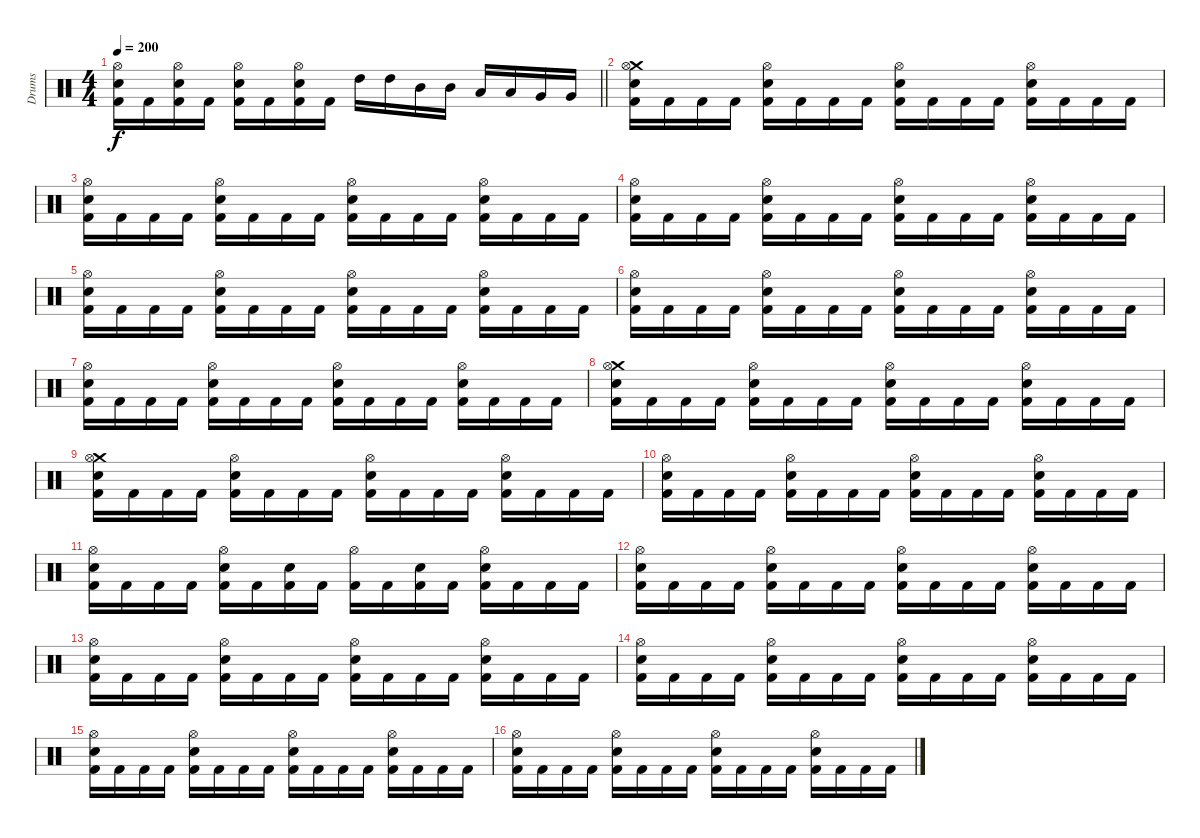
\track ("Drums" "Drums") {instrument percussion}
\staff {score}
\articulation defaults
\ts (4 4)
\tempo 200
\clef neutral
\barLineRight lightlight
\ks c
("Hi-Hat (open)" "Snare (hit) 2" "Kick (hit) 2").16{dy f} "Kick (hit) 2".16 ("Hi-Hat (open)" "Snare (hit) 2" "Kick (hit) 2").16 "Kick (hit) 2".16 ("Hi-Hat (open)" "Snare (hit) 2" "Kick (hit) 2").16 "Kick (hit) 2".16 ("Hi-Hat (open)" "Snare (hit) 2" "Kick (hit) 2").16 "Kick (hit) 2".16 "High Tom (hit)".16 "High Tom (hit)".16 "Mid Tom (hit)".16 "Mid Tom (hit)".16 "Low Tom (hit)".16 "Low Tom (hit)".16 "Very Low Tom (hit)".16 "Very Low Tom (hit)".16 |
("Crash medium (hit)" "Hi-Hat (open)" "Snare (hit) 2" "Kick (hit) 2").16 "Kick (hit) 2".16 "Kick (hit) 2".16 "Kick (hit) 2".16 ("Hi-Hat (open)" "Snare (hit) 2" "Kick (hit) 2").16 "Kick (hit) 2".16 "Kick (hit) 2".16 "Kick (hit) 2".16 ("Hi-Hat (open)" "Snare (hit) 2" "Kick (hit) 2").16 "Kick (hit) 2".16 "Kick (hit) 2".16 "Kick (hit) 2".16 ("Hi-Hat (open)" "Snare (hit) 2" "Kick (hit) 2").16 "Kick (hit) 2".16 "Kick (hit) 2".16 "Kick (hit) 2".16 |
("Hi-Hat (open)" "Snare (hit) 2" "Kick (hit) 2").16 "Kick (hit) 2".16 "Kick (hit) 2".16 "Kick (hit) 2".16 ("Hi-Hat (open)" "Snare (hit) 2" "Kick (hit) 2").16 "Kick (hit) 2".16 "Kick (hit) 2".16 "Kick (hit) 2".16 ("Hi-Hat (open)" "Snare (hit) 2" "Kick (hit) 2").16 "Kick (hit) 2".16 "Kick (hit) 2".16 "Kick (hit) 2".16 ("Hi-Hat (open)" "Snare (hit) 2" "Kick (hit) 2").16 "Kick (hit) 2".16 "Kick (hit) 2".16 "Kick (hit) 2".16 |
("Hi-Hat (open)" "Snare (hit) 2" "Kick (hit) 2").16 "Kick (hit) 2".16 "Kick (hit) 2".16 "Kick (hit) 2".16 ("Hi-Hat (open)" "Snare (hit) 2" "Kick (hit) 2").16 "Kick (hit) 2".16 "Kick (hit) 2".16 "Kick (hit) 2".16 ("Hi-Hat (open)" "Snare (hit) 2" "Kick (hit) 2").16 "Kick (hit) 2".16 "Kick (hit) 2".16 "Kick (hit) 2".16 ("Hi-Hat (open)" "Snare (hit) 2" "Kick (hit) 2").16 "Kick (hit) 2".16 "Kick (hit) 2".16 "Kick (hit) 2".16 |
("Hi-Hat (open)" "Snare (hit) 2" "Kick (hit) 2").16 "Kick (hit) 2".16 "Kick (hit) 2".16 "Kick (hit) 2".16 ("Hi-Hat (open)" "Snare (hit) 2" "Kick (hit) 2").16 "Kick (hit) 2".16 "Kick (hit) 2".16 "Kick (hit) 2".16 ("Hi-Hat (open)" "Snare (hit) 2" "Kick (hit) 2").16 "Kick (hit) 2".16 "Kick (hit) 2".16 "Kick (hit) 2".16 ("Hi-Hat (open)" "Snare (hit) 2" "Kick (hit) 2").16 "Kick (hit) 2".16 "Kick (hit) 2".16 "Kick (hit) 2".16 |
("Hi-Hat (open)" "Snare (hit) 2" "Kick (hit) 2").16 "Kick (hit) 2".16 "Kick (hit) 2".16 "Kick (hit) 2".16 ("Hi-Hat (open)" "Snare (hit) 2" "Kick (hit) 2").16 "Kick (hit) 2".16 "Kick (hit) 2".16 "Kick (hit) 2".16 ("Hi-Hat (open)" "Snare (hit) 2" "Kick (hit) 2").16 "Kick (hit) 2".16 "Kick (hit) 2".16 "Kick (hit) 2".16 ("Hi-Hat (open)" "Snare (hit) 2" "Kick (hit) 2").16 "Kick (hit) 2".16 "Kick (hit) 2".16 "Kick (hit) 2".16 |
("Hi-Hat (open)" "Snare (hit) 2" "Kick (hit) 2").16 "Kick (hit) 2".16 "Kick (hit) 2".16 "Kick (hit) 2".16 ("Hi-Hat (open)" "Snare (hit) 2" "Kick (hit) 2").16 "Kick (hit) 2".16 "Kick (hit) 2".16 "Kick (hit) 2".16 ("Hi-Hat (open)" "Snare (hit) 2" "Kick (hit) 2").16 "Kick (hit) 2".16 "Kick (hit) 2".16 "Kick (hit) 2".16 ("Hi-Hat (open)" "Snare (hit) 2" "Kick (hit) 2").16 "Kick (hit) 2".16 "Kick (hit) 2".16 "Kick (hit) 2".16 |
("Crash medium (hit)" "Hi-Hat (open)" "Snare (hit) 2" "Kick (hit) 2").16 "Kick (hit) 2".16 "Kick (hit) 2".16 "Kick (hit) 2".16 ("Hi-Hat (open)" "Snare (hit) 2" "Kick (hit) 2").16 "Kick (hit) 2".16 "Kick (hit) 2".16 "Kick (hit) 2".16 ("Hi-Hat (open)" "Snare (hit) 2" "Kick (hit) 2").16 "Kick (hit) 2".16 "Kick (hit) 2".16 "Kick (hit) 2".16 ("Hi-Hat (open)" "Snare (hit) 2" "Kick (hit) 2").16 "Kick (hit) 2".16 "Kick (hit) 2".16 "Kick (hit) 2".16 |
("Crash medium (hit)" "Hi-Hat (open)" "Snare (hit) 2" "Kick (hit) 2").16 "Kick (hit) 2".16 "Kick (hit) 2".16 "Kick (hit) 2".16 ("Hi-Hat (open)" "Snare (hit) 2" "Kick (hit) 2").16 "Kick (hit) 2".16 "Kick (hit) 2".16 "Kick (hit) 2".16 ("Hi-Hat (open)" "Snare (hit) 2" "Kick (hit) 2").16 "Kick (hit) 2".16 "Kick (hit) 2".16 "Kick (hit) 2".16 ("Hi-Hat (open)" "Snare (hit) 2" "Kick (hit) 2").16 "Kick (hit) 2".16 "Kick (hit) 2".16 "Kick (hit) 2".16 |
("Hi-Hat (open)" "Snare (hit) 2" "Kick (hit) 2").16 "Kick (hit) 2".16 "Kick (hit) 2".16 "Kick (hit) 2".16 ("Hi-Hat (open)" "Snare (hit) 2" "Kick (hit) 2").16 "Kick (hit) 2".16 "Kick (hit) 2".16 "Kick (hit) 2".16 ("Hi-Hat (open)" "Snare (hit) 2" "Kick (hit) 2").16 "Kick (hit) 2".16 "Kick (hit) 2".16 "Kick (hit) 2".16 ("Hi-Hat (open)" "Snare (hit) 2" "Kick (hit) 2").16 "Kick (hit) 2".16 "Kick (hit) 2".16 "Kick (hit) 2".16 |
("Hi-Hat (open)" "Snare (hit) 2" "Kick (hit) 2").16 "Kick (hit) 2".16 "Kick (hit) 2".16 "Kick (hit) 2".16 ("Hi-Hat (open)" "Snare (hit) 2" "Kick (hit) 2").16 "Kick (hit) 2".16 ("Snare (hit) 2" "Kick (hit) 2").16 "Kick (hit) 2".16 ("Hi-Hat (open)" "Kick (hit) 2").16 "Kick (hit) 2".16 ("Snare (hit) 2" "Kick (hit) 2").16 "Kick (hit) 2".16 ("Hi-Hat (open)" "Snare (hit) 2" "Kick (hit) 2").16 "Kick (hit) 2".16 "Kick (hit) 2".16 "Kick (hit) 2".16 |
("Hi-Hat (open)" "Snare (hit) 2" "Kick (hit) 2").16 "Kick (hit) 2".16 "Kick (hit) 2".16 "Kick (hit) 2".16 ("Hi-Hat (open)" "Snare (hit) 2" "Kick (hit) 2").16 "Kick (hit) 2".16 "Kick (hit) 2".16 "Kick (hit) 2".16 ("Hi-Hat (open)" "Snare (hit) 2" "Kick (hit) 2").16 "Kick (hit) 2".16 "Kick (hit) 2".16 "Kick (hit) 2".16 ("Hi-Hat (open)" "Snare (hit) 2" "Kick (hit) 2").16 "Kick (hit) 2".16 "Kick (hit) 2".16 "Kick (hit) 2".16 |
("Hi-Hat (open)" "Snare (hit) 2" "Kick (hit) 2").16 "Kick (hit) 2".16 "Kick (hit) 2".16 "Kick (hit) 2".16 ("Hi-Hat (open)" "Snare (hit) 2" "Kick (hit) 2").16 "Kick (hit) 2".16 "Kick (hit) 2".16 "Kick (hit) 2".16 ("Hi-Hat (open)" "Snare (hit) 2" "Kick (hit) 2").16 "Kick (hit) 2".16 "Kick (hit) 2".16 "Kick (hit) 2".16 ("Hi-Hat (open)" "Snare (hit) 2" "Kick (hit) 2").16 "Kick (hit) 2".16 "Kick (hit) 2".16 "Kick (hit) 2".16 |
("Hi-Hat (open)" "Snare (hit) 2" "Kick (hit) 2").16 "Kick (hit) 2".16 "Kick (hit) 2".16 "Kick (hit) 2".16 ("Hi-Hat (open)" "Snare (hit) 2" "Kick (hit) 2").16 "Kick (hit) 2".16 "Kick (hit) 2".16 "Kick (hit) 2".16 ("Hi-Hat (open)" "Snare (hit) 2" "Kick (hit) 2").16 "Kick (hit) 2".16 "Kick (hit) 2".16 "Kick (hit) 2".16 ("Hi-Hat (open)" "Snare (hit) 2" "Kick (hit) 2").16 "Kick (hit) 2".16 "Kick (hit) 2".16 "Kick (hit) 2".16 |
("Hi-Hat (open)" "Snare (hit) 2" "Kick (hit) 2").16 "Kick (hit) 2".16 "Kick (hit) 2".16 "Kick (hit) 2".16 ("Hi-Hat (open)" "Snare (hit) 2" "Kick (hit) 2").16 "Kick (hit) 2".16 "Kick (hit) 2".16 "Kick (hit) 2".16 ("Hi-Hat (open)" "Snare (hit) 2" "Kick (hit) 2").16 "Kick (hit) 2".16 "Kick (hit) 2".16 "Kick (hit) 2".16 ("Hi-Hat (open)" "Snare (hit) 2" "Kick (hit) 2").16 "Kick (hit) 2".16 "Kick (hit) 2".16 "Kick (hit) 2".16 |
("Hi-Hat (open)" "Snare (hit) 2" "Kick (hit) 2").16 "Kick (hit) 2".16 "Kick (hit) 2".16 "Kick (hit) 2".16 ("Hi-Hat (open)" "Snare (hit) 2" "Kick (hit) 2").16 "Kick (hit) 2".16 "Kick (hit) 2".16 "Kick (hit) 2".16 ("Hi-Hat (open)" "Snare (hit) 2" "Kick (hit) 2").16 "Kick (hit) 2".16 "Kick (hit) 2".16 "Kick (hit) 2".16 ("Hi-Hat (open)" "Snare (hit) 2" "Kick (hit) 2").16 "Kick (hit) 2".16 "Kick (hit) 2".16 "Kick (hit) 2".16
